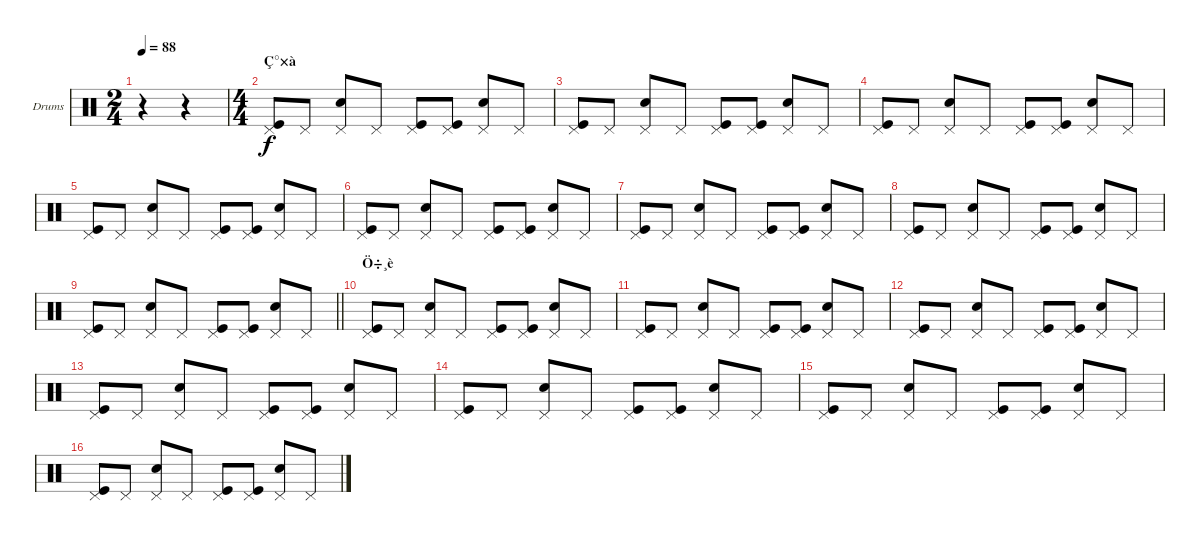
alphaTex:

\bracketExtendMode groupsimilarinstruments
\firstSystemTrackNameOrientation horizontal
\otherSystemsTrackNameOrientation horizontal
\track ("Drumkit" "Drums") {instrument percussion}
\staff {score}
\articulation defaults
\ts (2 4)
\tempo 88
\clef neutral
\ks c
r.4{dy f} r.4 |
\ts (4 4)
\section ("" "Ç°×à")
("Pedal Hi-Hat (hit)" "Kick (hit)").8 "Pedal Hi-Hat (hit)".8 ("Pedal Hi-Hat (hit)" "Snare (hit) 2").8 "Pedal Hi-Hat (hit)".8 ("Pedal Hi-Hat (hit)" "Kick (hit)").8 ("Pedal Hi-Hat (hit)" "Kick (hit)").8 ("Pedal Hi-Hat (hit)" "Snare (hit) 2").8 "Pedal Hi-Hat (hit)".8 |
("Pedal Hi-Hat (hit)" "Kick (hit)").8 "Pedal Hi-Hat (hit)".8 ("Pedal Hi-Hat (hit)" "Snare (hit) 2").8 "Pedal Hi-Hat (hit)".8 ("Pedal Hi-Hat (hit)" "Kick (hit)").8 ("Pedal Hi-Hat (hit)" "Kick (hit)").8 ("Pedal Hi-Hat (hit)" "Snare (hit) 2").8 "Pedal Hi-Hat (hit)".8 |
("Pedal Hi-Hat (hit)" "Kick (hit)").8 "Pedal Hi-Hat (hit)".8 ("Pedal Hi-Hat (hit)" "Snare (hit) 2").8 "Pedal Hi-Hat (hit)".8 ("Pedal Hi-Hat (hit)" "Kick (hit)").8 ("Pedal Hi-Hat (hit)" "Kick (hit)").8 ("Pedal Hi-Hat (hit)" "Snare (hit) 2").8 "Pedal Hi-Hat (hit)".8 |
("Pedal Hi-Hat (hit)" "Kick (hit)").8 "Pedal Hi-Hat (hit)".8 ("Pedal Hi-Hat (hit)" "Snare (hit) 2").8 "Pedal Hi-Hat (hit)".8 ("Pedal Hi-Hat (hit)" "Kick (hit)").8 ("Pedal Hi-Hat (hit)" "Kick (hit)").8 ("Pedal Hi-Hat (hit)" "Snare (hit) 2").8 "Pedal Hi-Hat (hit)".8 |
("Pedal Hi-Hat (hit)" "Kick (hit)").8 "Pedal Hi-Hat (hit)".8 ("Pedal Hi-Hat (hit)" "Snare (hit) 2").8 "Pedal Hi-Hat (hit)".8 ("Pedal Hi-Hat (hit)" "Kick (hit)").8 ("Pedal Hi-Hat (hit)" "Kick (hit)").8 ("Pedal Hi-Hat (hit)" "Snare (hit) 2").8 "Pedal Hi-Hat (hit)".8 |
("Pedal Hi-Hat (hit)" "Kick (hit)").8 "Pedal Hi-Hat (hit)".8 ("Pedal Hi-Hat (hit)" "Snare (hit) 2").8 "Pedal Hi-Hat (hit)".8 ("Pedal Hi-Hat (hit)" "Kick (hit)").8 ("Pedal Hi-Hat (hit)" "Kick (hit)").8 ("Pedal Hi-Hat (hit)" "Snare (hit) 2").8 "Pedal Hi-Hat (hit)".8 |
("Pedal Hi-Hat (hit)" "Kick (hit)").8 "Pedal Hi-Hat (hit)".8 ("Pedal Hi-Hat (hit)" "Snare (hit) 2").8 "Pedal Hi-Hat (hit)".8 ("Pedal Hi-Hat (hit)" "Kick (hit)").8 ("Pedal Hi-Hat (hit)" "Kick (hit)").8 ("Pedal Hi-Hat (hit)" "Snare (hit) 2").8 "Pedal Hi-Hat (hit)".8 |
\barLineRight lightlight
("Pedal Hi-Hat (hit)" "Kick (hit)").8 "Pedal Hi-Hat (hit)".8 ("Pedal Hi-Hat (hit)" "Snare (hit) 2").8 "Pedal Hi-Hat (hit)".8 ("Pedal Hi-Hat (hit)" "Kick (hit)").8 ("Pedal Hi-Hat (hit)" "Kick (hit)").8 ("Pedal Hi-Hat (hit)" "Snare (hit) 2").8 "Pedal Hi-Hat (hit)".8 |
\section ("" "Ö÷¸è")
("Pedal Hi-Hat (hit)" "Kick (hit)").8 "Pedal Hi-Hat (hit)".8 ("Pedal Hi-Hat (hit)" "Snare (hit) 2").8 "Pedal Hi-Hat (hit)".8 ("Pedal Hi-Hat (hit)" "Kick (hit)").8 ("Pedal Hi-Hat (hit)" "Kick (hit)").8 ("Pedal Hi-Hat (hit)" "Snare (hit) 2").8 "Pedal Hi-Hat (hit)".8 |
("Pedal Hi-Hat (hit)" "Kick (hit)").8 "Pedal Hi-Hat (hit)".8 ("Pedal Hi-Hat (hit)" "Snare (hit) 2").8 "Pedal Hi-Hat (hit)".8 ("Pedal Hi-Hat (hit)" "Kick (hit)").8 ("Pedal Hi-Hat (hit)" "Kick (hit)").8 ("Pedal Hi-Hat (hit)" "Snare (hit) 2").8 "Pedal Hi-Hat (hit)".8 |
("Pedal Hi-Hat (hit)" "Kick (hit)").8 "Pedal Hi-Hat (hit)".8 ("Pedal Hi-Hat (hit)" "Snare (hit) 2").8 "Pedal Hi-Hat (hit)".8 ("Pedal Hi-Hat (hit)" "Kick (hit)").8 ("Pedal Hi-Hat (hit)" "Kick (hit)").8 ("Pedal Hi-Hat (hit)" "Snare (hit) 2").8 "Pedal Hi-Hat (hit)".8 |
("Pedal Hi-Hat (hit)" "Kick (hit)").8 "Pedal Hi-Hat (hit)".8 ("Pedal Hi-Hat (hit)" "Snare (hit) 2").8 "Pedal Hi-Hat (hit)".8 ("Pedal Hi-Hat (hit)" "Kick (hit)").8 ("Pedal Hi-Hat (hit)" "Kick (hit)").8 ("Pedal Hi-Hat (hit)" "Snare (hit) 2").8 "Pedal Hi-Hat (hit)".8 |
("Pedal Hi-Hat (hit)" "Kick (hit)").8 "Pedal Hi-Hat (hit)".8 ("Pedal Hi-Hat (hit)" "Snare (hit) 2").8 "Pedal Hi-Hat (hit)".8 ("Pedal Hi-Hat (hit)" "Kick (hit)").8 ("Pedal Hi-Hat (hit)" "Kick (hit)").8 ("Pedal Hi-Hat (hit)" "Snare (hit) 2").8 "Pedal Hi-Hat (hit)".8 |
("Pedal Hi-Hat (hit)" "Kick (hit)").8 "Pedal Hi-Hat (hit)".8 ("Pedal Hi-Hat (hit)" "Snare (hit) 2").8 "Pedal Hi-Hat (hit)".8 ("Pedal Hi-Hat (hit)" "Kick (hit)").8 ("Pedal Hi-Hat (hit)" "Kick (hit)").8 ("Pedal Hi-Hat (hit)" "Snare (hit) 2").8 "Pedal Hi-Hat (hit)".8 |
("Pedal Hi-Hat (hit)" "Kick (hit)").8 "Pedal Hi-Hat (hit)".8 ("Pedal Hi-Hat (hit)" "Snare (hit) 2").8 "Pedal Hi-Hat (hit)".8 ("Pedal Hi-Hat (hit)" "Kick (hit)").8 ("Pedal Hi-Hat (hit)" "Kick (hit)").8 ("Pedal Hi-Hat (hit)" "Snare (hit) 2").8 "Pedal Hi-Hat (hit)".8
